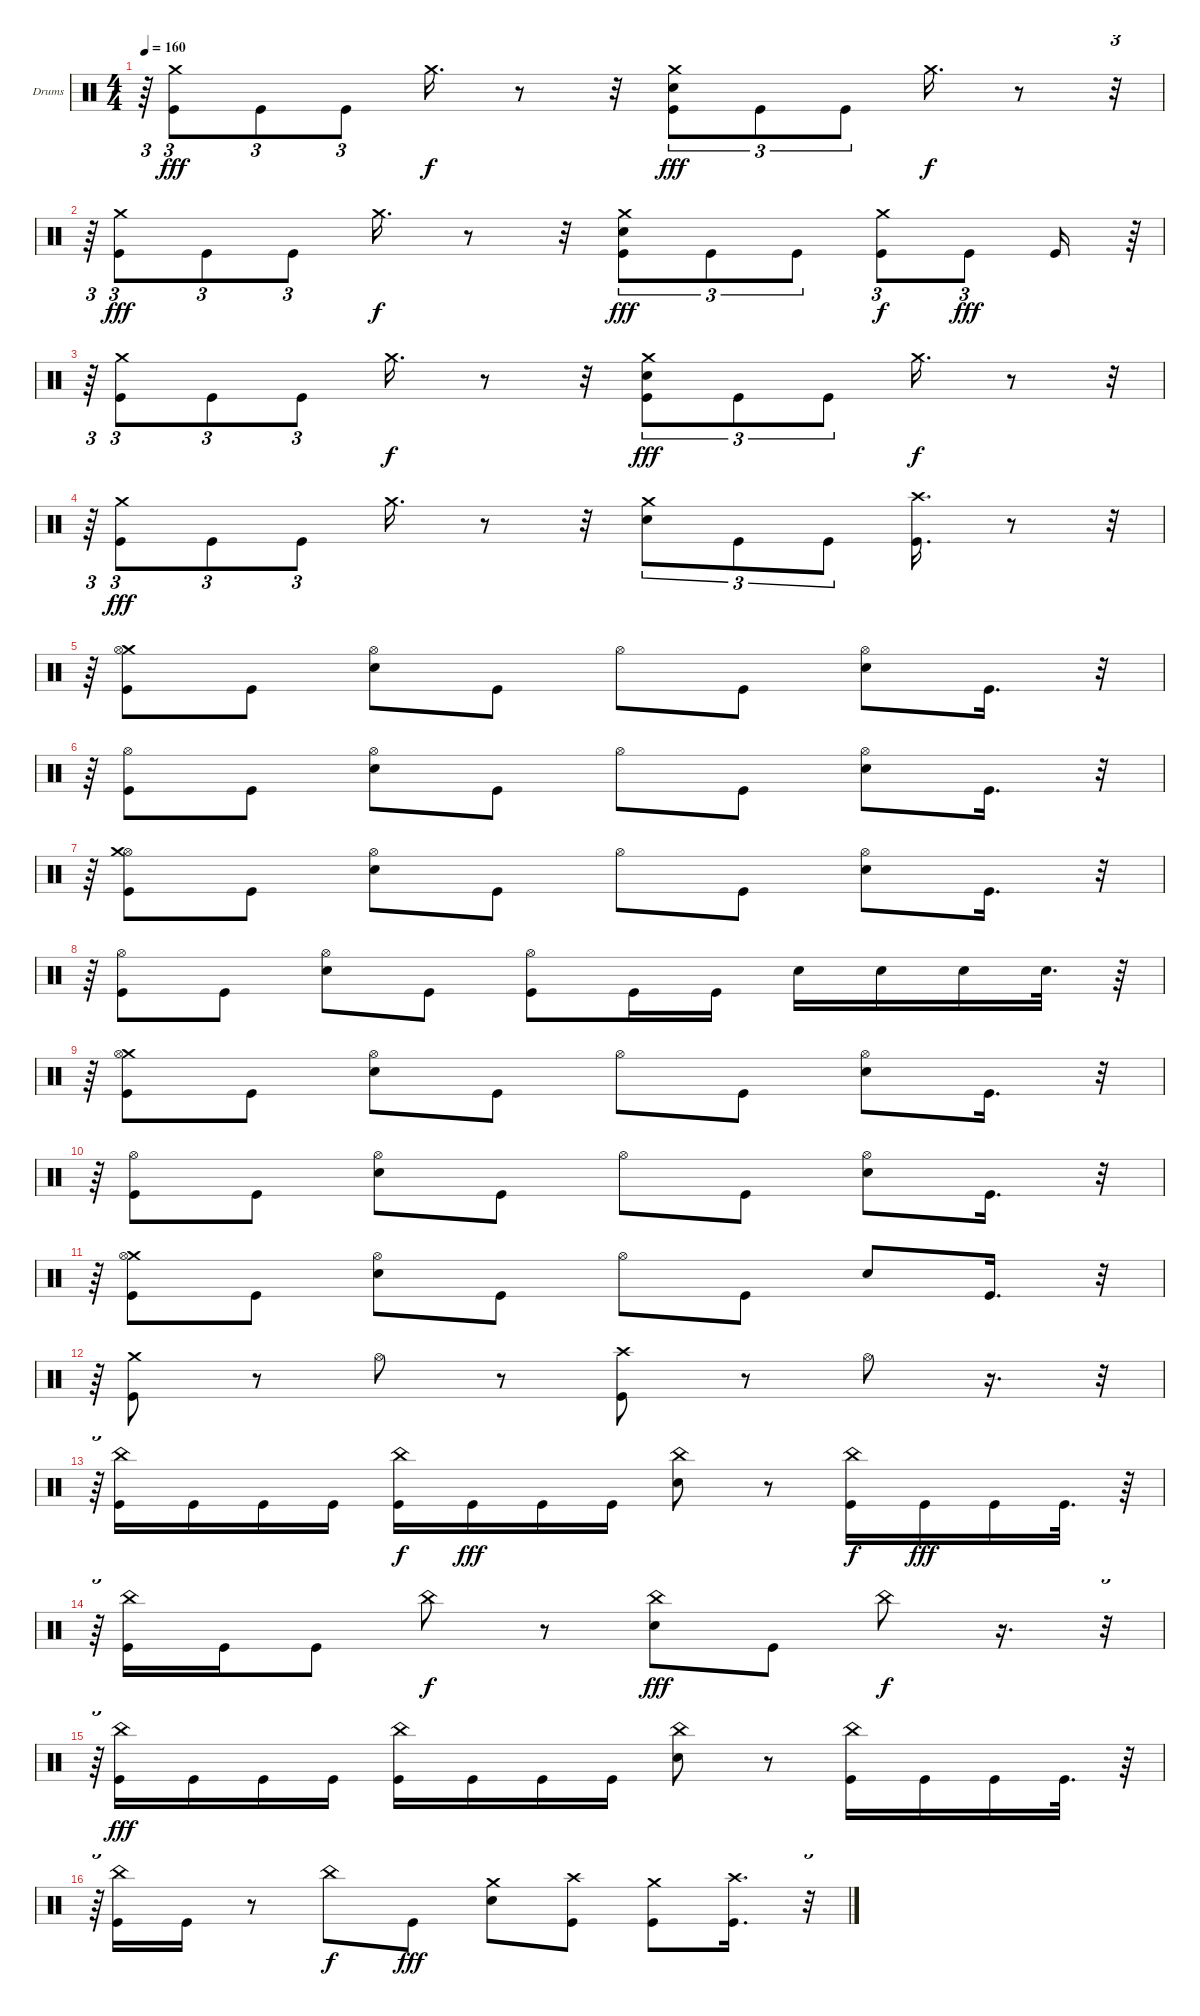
\bracketExtendMode groupsimilarinstruments
\firstSystemTrackNameOrientation horizontal
\otherSystemsTrackNameOrientation horizontal
\track ("Drums" "Drums") {instrument percussion}
\staff {score}
\articulation defaults
\ts (4 4)
\tempo 160
\clef neutral
\ks c
r.64{tu (3 2) dy fff} ("Crash medium (hit)" "Kick (hit)").8{tu (3 2)} "Kick (hit)".8{tu (3 2)} "Kick (hit)".8{tu (3 2)} "Crash medium (hit)".16{d dy f} r.8 r.32 ("Crash medium (hit)" "Snare (hit) 2" "Kick (hit)").8{tu (3 2) dy fff} "Kick (hit)".8{tu (3 2)} "Kick (hit)".8{tu (3 2)} "Crash medium (hit)".16{d dy f} r.8 r.32{tu (3 2)} |
r.64{tu (3 2)} ("Crash medium (hit)" "Kick (hit)").8{tu (3 2) dy fff} "Kick (hit)".8{tu (3 2)} "Kick (hit)".8{tu (3 2)} "Crash medium (hit)".16{d dy f} r.8 r.32 ("Crash medium (hit)" "Kick (hit)" "Snare (hit) 2").8{tu (3 2) dy fff} "Kick (hit)".8{tu (3 2)} "Kick (hit)".8{tu (3 2)} ("Crash medium (hit)" "Kick (hit)").8{tu (3 2) dy f} "Kick (hit)".8{tu (3 2) dy fff} "Kick (hit)".16 r.64{tu (3 2)} |
r.64{tu (3 2)} ("Crash medium (hit)" "Kick (hit)").8{tu (3 2)} "Kick (hit)".8{tu (3 2)} "Kick (hit)".8{tu (3 2)} "Crash medium (hit)".16{d dy f} r.8 r.32 ("Crash medium (hit)" "Snare (hit) 2" "Kick (hit)").8{tu (3 2) dy fff} "Kick (hit)".8{tu (3 2)} "Kick (hit)".8{tu (3 2)} "Crash medium (hit)".16{d dy f} r.8 r.32{tu (3 2)} |
r.64{tu (3 2)} ("Crash medium (hit)" "Kick (hit)").8{tu (3 2) dy fff} "Kick (hit)".8{tu (3 2)} "Kick (hit)".8{tu (3 2)} "Crash medium (hit)".16{d} r.8 r.32 ("Crash medium (hit)" "Snare (hit) 2").8{tu (3 2)} "Kick (hit)".8{tu (3 2)} "Kick (hit)".8{tu (3 2)} ("Kick (hit)" "Crash high (hit)").16{d} r.8 r.32{tu (3 2)} |
r.64{tu (3 2)} ("Kick (hit)" "Crash medium (hit)" "Hi-Hat (open)").8 "Kick (hit)".8 ("Hi-Hat (open)" "Snare (hit) 2").8 "Kick (hit)".8 "Hi-Hat (open)".8 "Kick (hit)".8 ("Hi-Hat (open)" "Snare (hit) 2").8 "Kick (hit)".16{d} r.32{tu (3 2)} |
r.64{tu (3 2)} ("Kick (hit)" "Hi-Hat (open)").8 "Kick (hit)".8 ("Hi-Hat (open)" "Snare (hit) 2").8 "Kick (hit)".8 "Hi-Hat (open)".8 "Kick (hit)".8 ("Hi-Hat (open)" "Snare (hit) 2").8 "Kick (hit)".16{d} r.32{tu (3 2)} |
r.64{tu (3 2)} ("Kick (hit)" "Hi-Hat (open)" "Crash medium (hit)").8 "Kick (hit)".8 ("Hi-Hat (open)" "Snare (hit) 2").8 "Kick (hit)".8 "Hi-Hat (open)".8 "Kick (hit)".8 ("Hi-Hat (open)" "Snare (hit) 2").8 "Kick (hit)".16{d} r.32{tu (3 2)} |
r.64{tu (3 2)} ("Kick (hit)" "Hi-Hat (open)").8 "Kick (hit)".8 ("Hi-Hat (open)" "Snare (hit) 2").8 "Kick (hit)".8 ("Kick (hit)" "Hi-Hat (open)").8 "Kick (hit)".16 "Kick (hit)".16 "Snare (hit) 2".16 "Snare (hit) 2".16 "Snare (hit) 2".16 "Snare (hit) 2".32{d} r.64 |
r.64{tu (3 2)} ("Kick (hit)" "Crash medium (hit)" "Hi-Hat (open)").8 "Kick (hit)".8 ("Snare (hit) 2" "Hi-Hat (open)").8 "Kick (hit)".8 "Hi-Hat (open)".8 "Kick (hit)".8 ("Snare (hit) 2" "Hi-Hat (open)").8 "Kick (hit)".16{d} r.32{tu (3 2)} |
r.64{tu (3 2)} ("Kick (hit)" "Hi-Hat (open)").8 "Kick (hit)".8 ("Hi-Hat (open)" "Snare (hit) 2").8 "Kick (hit)".8 "Hi-Hat (open)".8 "Kick (hit)".8 ("Hi-Hat (open)" "Snare (hit) 2").8 "Kick (hit)".16{d} r.32{tu (3 2)} |
r.64{tu (3 2)} ("Kick (hit)" "Crash medium (hit)" "Hi-Hat (open)").8 "Kick (hit)".8 ("Hi-Hat (open)" "Snare (hit) 2").8 "Kick (hit)".8 "Hi-Hat (open)".8 "Kick (hit)".8 "Snare (hit) 2".8 "Kick (hit)".16{d} r.32{tu (3 2)} |
r.64{tu (3 2)} ("Crash medium (hit)" "Kick (hit)").8 r.8 "Hi-Hat (open)".8 r.8 ("Crash high (hit)" "Kick (hit)").8 r.8 "Hi-Hat (open)".8 r.16{d} r.32{tu (3 2)} |
r.64{tu (3 2)} ("China (hit)" "Kick (hit)").16 "Kick (hit)".16 "Kick (hit)".16 "Kick (hit)".16 ("China (hit)" "Kick (hit)").16{dy f} "Kick (hit)".16{dy fff} "Kick (hit)".16 "Kick (hit)".16 ("Snare (hit) 2" "China (hit)").8 r.8 ("China (hit)" "Kick (hit)").16{dy f} "Kick (hit)".16{dy fff} "Kick (hit)".16 "Kick (hit)".32{d} r.64 |
r.64{tu (3 2)} ("China (hit)" "Kick (hit)").16 "Kick (hit)".16 "Kick (hit)".8 "China (hit)".8{dy f} r.8 ("China (hit)" "Snare (hit) 2").8{dy fff} "Kick (hit)".8 "China (hit)".8{dy f} r.16{d} r.32{tu (3 2)} |
r.64{tu (3 2)} ("China (hit)" "Kick (hit)").16{dy fff} "Kick (hit)".16 "Kick (hit)".16 "Kick (hit)".16 ("Kick (hit)" "China (hit)").16 "Kick (hit)".16 "Kick (hit)".16 "Kick (hit)".16 ("Snare (hit) 2" "China (hit)").8 r.8 ("Kick (hit)" "China (hit)").16 "Kick (hit)".16 "Kick (hit)".16 "Kick (hit)".32{d} r.64 |
r.64{tu (3 2)} ("China (hit)" "Kick (hit)").16 "Kick (hit)".16 r.8 "China (hit)".8{dy f} "Kick (hit)".8{dy fff} ("Crash medium (hit)" "Snare (hit) 2").8 ("Crash high (hit)" "Kick (hit)").8 ("Crash medium (hit)" "Kick (hit)").8 ("Crash high (hit)" "Kick (hit)").16{d} r.32{tu (3 2)}
